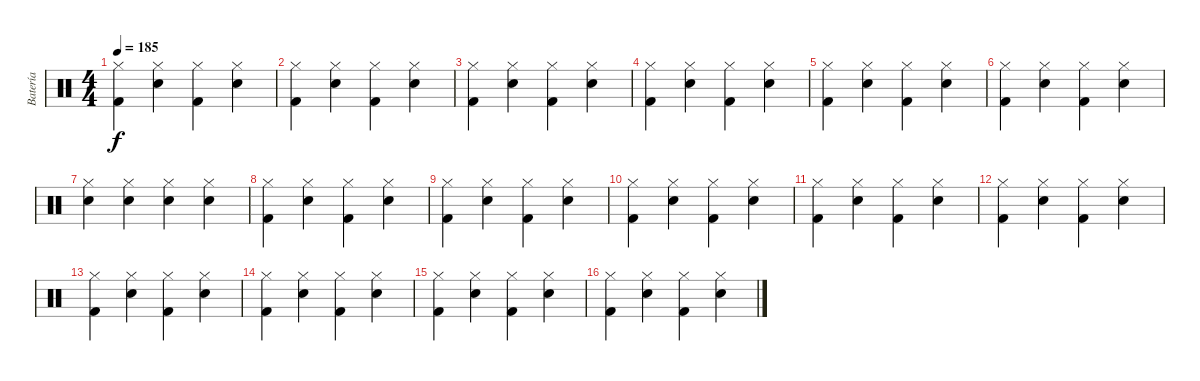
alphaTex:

\track ("Batería" "Batería") {instrument percussion}
\staff {score}
\articulation defaults
\ts (4 4)
\tempo 185
\clef neutral
\ks c
("Hi-Hat (closed)" "Kick (hit) 2").4{dy f} ("Hi-Hat (closed)" "Snare (hit) 2").4 ("Hi-Hat (closed)" "Kick (hit) 2").4 ("Hi-Hat (closed)" "Snare (hit) 2").4 |
("Hi-Hat (closed)" "Kick (hit) 2").4 ("Hi-Hat (closed)" "Snare (hit) 2").4 ("Hi-Hat (closed)" "Kick (hit) 2").4 ("Hi-Hat (closed)" "Snare (hit) 2").4 |
("Hi-Hat (closed)" "Kick (hit) 2").4 ("Hi-Hat (closed)" "Snare (hit) 2").4 ("Hi-Hat (closed)" "Kick (hit) 2").4 ("Hi-Hat (closed)" "Snare (hit) 2").4 |
("Hi-Hat (closed)" "Kick (hit) 2").4 ("Hi-Hat (closed)" "Snare (hit) 2").4 ("Hi-Hat (closed)" "Kick (hit) 2").4 ("Hi-Hat (closed)" "Snare (hit) 2").4 |
("Hi-Hat (closed)" "Kick (hit) 2").4 ("Hi-Hat (closed)" "Snare (hit) 2").4 ("Hi-Hat (closed)" "Kick (hit) 2").4 ("Hi-Hat (closed)" "Snare (hit) 2").4 |
("Hi-Hat (closed)" "Kick (hit) 2").4 ("Hi-Hat (closed)" "Snare (hit) 2").4 ("Hi-Hat (closed)" "Kick (hit) 2").4 ("Hi-Hat (closed)" "Snare (hit) 2").4 |
("Hi-Hat (closed)" "Snare (hit) 2").4 ("Hi-Hat (closed)" "Snare (hit) 2").4 ("Hi-Hat (closed)" "Snare (hit) 2").4 ("Hi-Hat (closed)" "Snare (hit) 2").4 |
("Hi-Hat (closed)" "Kick (hit) 2").4 ("Hi-Hat (closed)" "Snare (hit) 2").4 ("Hi-Hat (closed)" "Kick (hit) 2").4 ("Hi-Hat (closed)" "Snare (hit) 2").4 |
("Hi-Hat (closed)" "Kick (hit) 2").4 ("Hi-Hat (closed)" "Snare (hit) 2").4 ("Hi-Hat (closed)" "Kick (hit) 2").4 ("Hi-Hat (closed)" "Snare (hit) 2").4 |
("Hi-Hat (closed)" "Kick (hit) 2").4 ("Hi-Hat (closed)" "Snare (hit) 2").4 ("Hi-Hat (closed)" "Kick (hit) 2").4 ("Hi-Hat (closed)" "Snare (hit) 2").4 |
("Hi-Hat (closed)" "Kick (hit) 2").4 ("Hi-Hat (closed)" "Snare (hit) 2").4 ("Hi-Hat (closed)" "Kick (hit) 2").4 ("Hi-Hat (closed)" "Snare (hit) 2").4 |
("Hi-Hat (closed)" "Kick (hit) 2").4 ("Hi-Hat (closed)" "Snare (hit) 2").4 ("Hi-Hat (closed)" "Kick (hit) 2").4 ("Hi-Hat (closed)" "Snare (hit) 2").4 |
("Hi-Hat (closed)" "Kick (hit) 2").4 ("Hi-Hat (closed)" "Snare (hit) 2").4 ("Hi-Hat (closed)" "Kick (hit) 2").4 ("Hi-Hat (closed)" "Snare (hit) 2").4 |
("Hi-Hat (closed)" "Kick (hit) 2").4 ("Hi-Hat (closed)" "Snare (hit) 2").4 ("Hi-Hat (closed)" "Kick (hit) 2").4 ("Hi-Hat (closed)" "Snare (hit) 2").4 |
("Hi-Hat (closed)" "Kick (hit) 2").4 ("Hi-Hat (closed)" "Snare (hit) 2").4 ("Hi-Hat (closed)" "Kick (hit) 2").4 ("Hi-Hat (closed)" "Snare (hit) 2").4 |
("Hi-Hat (closed)" "Kick (hit) 2").4 ("Hi-Hat (closed)" "Snare (hit) 2").4 ("Hi-Hat (closed)" "Kick (hit) 2").4 ("Hi-Hat (closed)" "Snare (hit) 2").4
